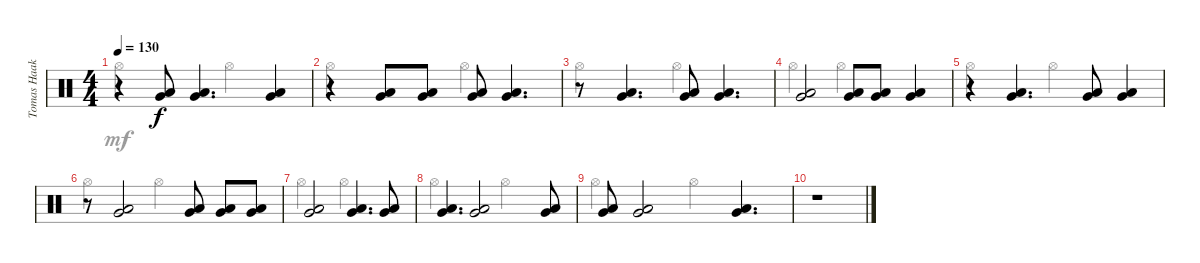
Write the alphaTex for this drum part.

\track ("Tomas Haake" "Tomas Haak") {instrument percussion}
\staff {score}
\articulation defaults
\voice
\ts (4 4)
\tempo 130
\clef neutral
\ks c
r.4{dy f} ("Very Low Tom (hit)" "Low Floor Tom (hit)").8 ("Very Low Tom (hit)" "Low Floor Tom (hit)").4{d} ("Very Low Tom (hit)" "Low Floor Tom (hit)").4 |
r.4 ("Very Low Tom (hit)" "Low Floor Tom (hit)").8 ("Very Low Tom (hit)" "Low Floor Tom (hit)").8 ("Very Low Tom (hit)" "Low Floor Tom (hit)").8 ("Very Low Tom (hit)" "Low Floor Tom (hit)").4{d} |
r.8 ("Very Low Tom (hit)" "Low Floor Tom (hit)").4{d} ("Very Low Tom (hit)" "Low Floor Tom (hit)").8 ("Very Low Tom (hit)" "Low Floor Tom (hit)").4{d} |
("Very Low Tom (hit)" "Low Floor Tom (hit)").2{volume 6} ("Very Low Tom (hit)" "Low Floor Tom (hit)").8 ("Very Low Tom (hit)" "Low Floor Tom (hit)").8 ("Very Low Tom (hit)" "Low Floor Tom (hit)").4 |
r.4 ("Very Low Tom (hit)" "Low Floor Tom (hit)").4{d} ("Very Low Tom (hit)" "Low Floor Tom (hit)").8 ("Very Low Tom (hit)" "Low Floor Tom (hit)").4 |
r.8 ("Very Low Tom (hit)" "Low Floor Tom (hit)").2 ("Very Low Tom (hit)" "Low Floor Tom (hit)").8 ("Very Low Tom (hit)" "Low Floor Tom (hit)").8 ("Very Low Tom (hit)" "Low Floor Tom (hit)").8 |
("Very Low Tom (hit)" "Low Floor Tom (hit)").2 ("Very Low Tom (hit)" "Low Floor Tom (hit)").4{d} ("Very Low Tom (hit)" "Low Floor Tom (hit)").8 |
("Very Low Tom (hit)" "Low Floor Tom (hit)").4{d volume 3} ("Very Low Tom (hit)" "Low Floor Tom (hit)").2 ("Very Low Tom (hit)" "Low Floor Tom (hit)").8 |
("Very Low Tom (hit)" "Low Floor Tom (hit)").8 ("Very Low Tom (hit)" "Low Floor Tom (hit)").2 ("Very Low Tom (hit)" "Low Floor Tom (hit)").4{d} |
r.1
\voice
\clef neutral
\ottava regular
\simile none
\ks c "Hi-Hat (open)".2{dy mf} "Hi-Hat (open)".2
|
"Hi-Hat (open)".2 "Hi-Hat (open)".2 |
"Hi-Hat (open)".2 "Hi-Hat (open)".2 |
"Hi-Hat (open)".2 "Hi-Hat (open)".2 |
"Hi-Hat (open)".2 "Hi-Hat (open)".2 |
"Hi-Hat (open)".2 "Hi-Hat (open)".2 |
"Hi-Hat (open)".2 "Hi-Hat (open)".2 |
"Hi-Hat (open)".2 "Hi-Hat (open)".2 |
"Hi-Hat (open)".2 "Hi-Hat (open)".2 |
